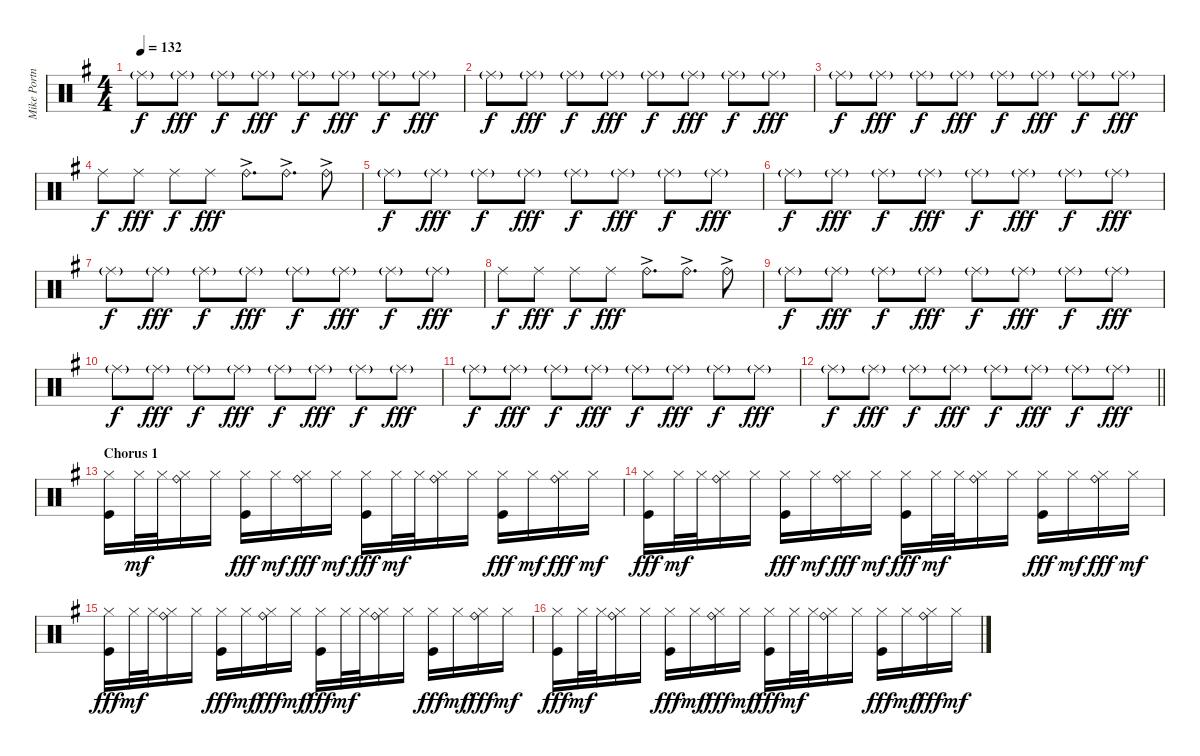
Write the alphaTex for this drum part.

\track ("Mike Portnoy" "Mike Portn") {instrument percussion}
\staff {score}
\articulation defaults
\ts (4 4)
\tempo 132
\clef neutral
\ks eminor "Ride (middle)"{g}.8{dy f} "Ride (middle)"{g}.8{dy fff} "Ride (middle)"{g}.8{dy f} "Ride (middle)"{g}.8{dy fff} "Ride (middle)"{g}.8{dy f} "Ride (middle)"{g}.8{dy fff} "Ride (middle)"{g}.8{dy f} "Ride (middle)"{g}.8{dy fff}
|
"Ride (middle)"{g}.8{dy f} "Ride (middle)"{g}.8{dy fff} "Ride (middle)"{g}.8{dy f} "Ride (middle)"{g}.8{dy fff} "Ride (middle)"{g}.8{dy f} "Ride (middle)"{g}.8{dy fff} "Ride (middle)"{g}.8{dy f} "Ride (middle)"{g}.8{dy fff} |
"Ride (middle)"{g}.8{dy f} "Ride (middle)"{g}.8{dy fff} "Ride (middle)"{g}.8{dy f} "Ride (middle)"{g}.8{dy fff} "Ride (middle)"{g}.8{dy f} "Ride (middle)"{g}.8{dy fff} "Ride (middle)"{g}.8{dy f} "Ride (middle)"{g}.8{dy fff} |
"Ride (middle)".8{dy f} "Ride (middle)".8{dy fff} "Ride (middle)".8{dy f} "Ride (middle)".8{dy fff} "Ride (bell)"{ac}.8{d} "Ride (bell)"{ac}.8{d} "Ride (bell)"{ac}.8 |
"Ride (middle)"{g}.8{dy f} "Ride (middle)"{g}.8{dy fff} "Ride (middle)"{g}.8{dy f} "Ride (middle)"{g}.8{dy fff} "Ride (middle)"{g}.8{dy f} "Ride (middle)"{g}.8{dy fff} "Ride (middle)"{g}.8{dy f} "Ride (middle)"{g}.8{dy fff} |
"Ride (middle)"{g}.8{dy f} "Ride (middle)"{g}.8{dy fff} "Ride (middle)"{g}.8{dy f} "Ride (middle)"{g}.8{dy fff} "Ride (middle)"{g}.8{dy f} "Ride (middle)"{g}.8{dy fff} "Ride (middle)"{g}.8{dy f} "Ride (middle)"{g}.8{dy fff} |
"Ride (middle)"{g}.8{dy f} "Ride (middle)"{g}.8{dy fff} "Ride (middle)"{g}.8{dy f} "Ride (middle)"{g}.8{dy fff} "Ride (middle)"{g}.8{dy f} "Ride (middle)"{g}.8{dy fff} "Ride (middle)"{g}.8{dy f} "Ride (middle)"{g}.8{dy fff} |
"Ride (middle)".8{dy f} "Ride (middle)".8{dy fff} "Ride (middle)".8{dy f} "Ride (middle)".8{dy fff} "Ride (bell)"{ac}.8{d} "Ride (bell)"{ac}.8{d} "Ride (bell)"{ac}.8 |
"Ride (middle)"{g}.8{dy f} "Ride (middle)"{g}.8{dy fff} "Ride (middle)"{g}.8{dy f} "Ride (middle)"{g}.8{dy fff} "Ride (middle)"{g}.8{dy f} "Ride (middle)"{g}.8{dy fff} "Ride (middle)"{g}.8{dy f} "Ride (middle)"{g}.8{dy fff} |
"Ride (middle)"{g}.8{dy f} "Ride (middle)"{g}.8{dy fff} "Ride (middle)"{g}.8{dy f} "Ride (middle)"{g}.8{dy fff} "Ride (middle)"{g}.8{dy f} "Ride (middle)"{g}.8{dy fff} "Ride (middle)"{g}.8{dy f} "Ride (middle)"{g}.8{dy fff} |
"Ride (middle)"{g}.8{dy f} "Ride (middle)"{g}.8{dy fff} "Ride (middle)"{g}.8{dy f} "Ride (middle)"{g}.8{dy fff} "Ride (middle)"{g}.8{dy f} "Ride (middle)"{g}.8{dy fff} "Ride (middle)"{g}.8{dy f} "Ride (middle)"{g}.8{dy fff} |
\barLineRight lightlight "Ride (middle)"{g}.8{dy f} "Ride (middle)"{g}.8{dy fff} "Ride (middle)"{g}.8{dy f} "Ride (middle)"{g}.8{dy fff} "Ride (middle)"{g}.8{dy f} "Ride (middle)"{g}.8{dy fff} "Ride (middle)"{g}.8{dy f} "Ride (middle)"{g}.8{dy fff}
|
\section ("" "Chorus 1")
("Hi-Hat (closed)" "Kick (hit)").16 "Hi-Hat (closed)".32{dy mf} "Hi-Hat (closed)".32 ("Hi-Hat (closed)" "Ride (bell)").16 "Hi-Hat (closed)".16 ("Hi-Hat (closed)" "Kick (hit)").16{dy fff} "Hi-Hat (closed)".16{dy mf} ("Ride (bell)" "Hi-Hat (closed)").16{dy fff} "Hi-Hat (closed)".16{dy mf} ("Hi-Hat (closed)" "Kick (hit)").16{dy fff} "Hi-Hat (closed)".32{dy mf} "Hi-Hat (closed)".32 ("Hi-Hat (closed)" "Ride (bell)").16 "Hi-Hat (closed)".16 ("Hi-Hat (closed)" "Kick (hit)").16{dy fff} "Hi-Hat (closed)".16{dy mf} ("Ride (bell)" "Hi-Hat (closed)").16{dy fff} "Hi-Hat (closed)".16{dy mf} |
("Hi-Hat (closed)" "Kick (hit)").16{dy fff} "Hi-Hat (closed)".32{dy mf} "Hi-Hat (closed)".32 ("Hi-Hat (closed)" "Ride (bell)").16 "Hi-Hat (closed)".16 ("Hi-Hat (closed)" "Kick (hit)").16{dy fff} "Hi-Hat (closed)".16{dy mf} ("Ride (bell)" "Hi-Hat (closed)").16{dy fff} "Hi-Hat (closed)".16{dy mf} ("Hi-Hat (closed)" "Kick (hit)").16{dy fff} "Hi-Hat (closed)".32{dy mf} "Hi-Hat (closed)".32 ("Hi-Hat (closed)" "Ride (bell)").16 "Hi-Hat (closed)".16 ("Hi-Hat (closed)" "Kick (hit)").16{dy fff} "Hi-Hat (closed)".16{dy mf} ("Ride (bell)" "Hi-Hat (closed)").16{dy fff} "Hi-Hat (closed)".16{dy mf} |
("Hi-Hat (closed)" "Kick (hit)").16{dy fff} "Hi-Hat (closed)".32{dy mf} "Hi-Hat (closed)".32 ("Hi-Hat (closed)" "Ride (bell)").16 "Hi-Hat (closed)".16 ("Hi-Hat (closed)" "Kick (hit)").16{dy fff} "Hi-Hat (closed)".16{dy mf} ("Ride (bell)" "Hi-Hat (closed)").16{dy fff} "Hi-Hat (closed)".16{dy mf} ("Hi-Hat (closed)" "Kick (hit)").16{dy fff} "Hi-Hat (closed)".32{dy mf} "Hi-Hat (closed)".32 ("Hi-Hat (closed)" "Ride (bell)").16 "Hi-Hat (closed)".16 ("Hi-Hat (closed)" "Kick (hit)").16{dy fff} "Hi-Hat (closed)".16{dy mf} ("Ride (bell)" "Hi-Hat (closed)").16{dy fff} "Hi-Hat (closed)".16{dy mf} |
("Hi-Hat (closed)" "Kick (hit)").16{dy fff} "Hi-Hat (closed)".32{dy mf} "Hi-Hat (closed)".32 ("Hi-Hat (closed)" "Ride (bell)").16 "Hi-Hat (closed)".16 ("Hi-Hat (closed)" "Kick (hit)").16{dy fff} "Hi-Hat (closed)".16{dy mf} ("Ride (bell)" "Hi-Hat (closed)").16{dy fff} "Hi-Hat (closed)".16{dy mf} ("Hi-Hat (closed)" "Kick (hit)").16{dy fff} "Hi-Hat (closed)".32{dy mf} "Hi-Hat (closed)".32 ("Hi-Hat (closed)" "Ride (bell)").16 "Hi-Hat (closed)".16 ("Hi-Hat (closed)" "Kick (hit)").16{dy fff} "Hi-Hat (closed)".16{dy mf} ("Ride (bell)" "Hi-Hat (closed)").16{dy fff} "Hi-Hat (closed)".16{dy mf}
